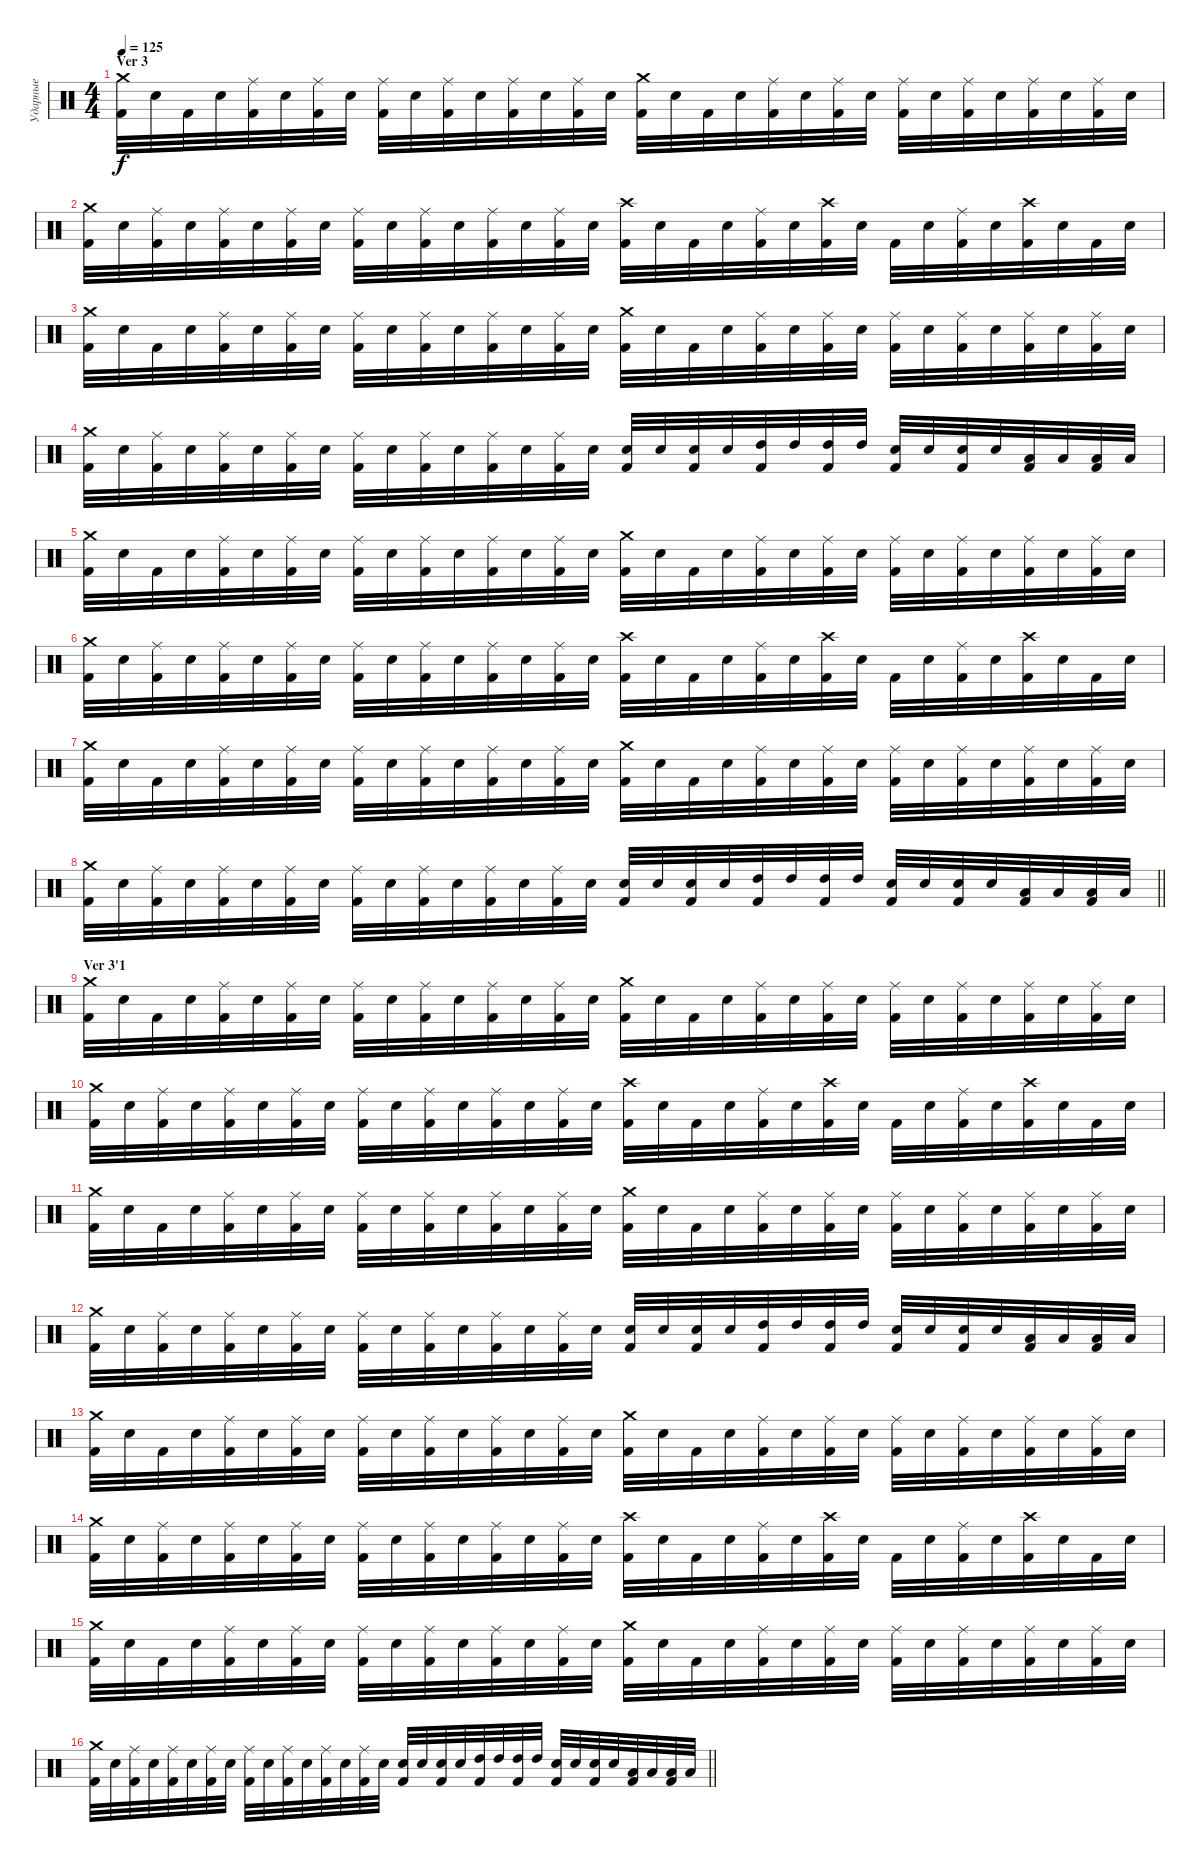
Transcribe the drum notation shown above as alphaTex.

\track ("Ударные" "Ударные") {instrument percussion}
\staff {score}
\articulation defaults
\ts (4 4)
\section ("" "Ver 3")
\tempo 125
\clef neutral
\ks c
("Crash medium (hit)" "Kick (hit) 2").32{dy f} "Electric Snare (hit)".32 "Kick (hit) 2".32 "Electric Snare (hit)".32 ("Ride (middle)" "Kick (hit) 2").32 "Electric Snare (hit)".32 ("Ride (middle)" "Kick (hit) 2").32 "Electric Snare (hit)".32 ("Ride (middle)" "Kick (hit) 2").32 "Electric Snare (hit)".32 ("Ride (middle)" "Kick (hit) 2").32 "Electric Snare (hit)".32 ("Ride (middle)" "Kick (hit) 2").32 "Electric Snare (hit)".32 ("Ride (middle)" "Kick (hit) 2").32 "Electric Snare (hit)".32 ("Crash medium (hit)" "Kick (hit) 2").32 "Electric Snare (hit)".32 "Kick (hit) 2".32 "Electric Snare (hit)".32 ("Ride (middle)" "Kick (hit) 2").32 "Electric Snare (hit)".32 ("Ride (middle)" "Kick (hit) 2").32 "Electric Snare (hit)".32 ("Ride (middle)" "Kick (hit) 2").32 "Electric Snare (hit)".32 ("Ride (middle)" "Kick (hit) 2").32 "Electric Snare (hit)".32 ("Ride (middle)" "Kick (hit) 2").32 "Electric Snare (hit)".32 ("Ride (middle)" "Kick (hit) 2").32 "Electric Snare (hit)".32 |
("Crash medium (hit)" "Kick (hit) 2").32 "Electric Snare (hit)".32 ("Ride (middle)" "Kick (hit) 2").32 "Electric Snare (hit)".32 ("Ride (middle)" "Kick (hit) 2").32 "Electric Snare (hit)".32 ("Ride (middle)" "Kick (hit) 2").32 "Electric Snare (hit)".32 ("Ride (middle)" "Kick (hit) 2").32 "Electric Snare (hit)".32 ("Ride (middle)" "Kick (hit) 2").32 "Electric Snare (hit)".32 ("Ride (middle)" "Kick (hit) 2").32 "Electric Snare (hit)".32 ("Ride (middle)" "Kick (hit) 2").32 "Electric Snare (hit)".32 ("Crash high (hit)" "Kick (hit) 2").32 "Electric Snare (hit)".32 "Kick (hit) 2".32 "Electric Snare (hit)".32 ("Ride (middle)" "Kick (hit) 2").32 "Electric Snare (hit)".32 ("Crash high (hit)" "Kick (hit) 2").32 "Electric Snare (hit)".32 "Kick (hit) 2".32 "Electric Snare (hit)".32 ("Ride (middle)" "Kick (hit) 2").32 "Electric Snare (hit)".32 ("Crash high (hit)" "Kick (hit) 2").32 "Electric Snare (hit)".32 "Kick (hit) 2".32 "Electric Snare (hit)".32 |
("Crash medium (hit)" "Kick (hit) 2").32 "Electric Snare (hit)".32 "Kick (hit) 2".32 "Electric Snare (hit)".32 ("Ride (middle)" "Kick (hit) 2").32 "Electric Snare (hit)".32 ("Ride (middle)" "Kick (hit) 2").32 "Electric Snare (hit)".32 ("Ride (middle)" "Kick (hit) 2").32 "Electric Snare (hit)".32 ("Ride (middle)" "Kick (hit) 2").32 "Electric Snare (hit)".32 ("Ride (middle)" "Kick (hit) 2").32 "Electric Snare (hit)".32 ("Ride (middle)" "Kick (hit) 2").32 "Electric Snare (hit)".32 ("Crash medium (hit)" "Kick (hit) 2").32 "Electric Snare (hit)".32 "Kick (hit) 2".32 "Electric Snare (hit)".32 ("Ride (middle)" "Kick (hit) 2").32 "Electric Snare (hit)".32 ("Ride (middle)" "Kick (hit) 2").32 "Electric Snare (hit)".32 ("Ride (middle)" "Kick (hit) 2").32 "Electric Snare (hit)".32 ("Ride (middle)" "Kick (hit) 2").32 "Electric Snare (hit)".32 ("Ride (middle)" "Kick (hit) 2").32 "Electric Snare (hit)".32 ("Ride (middle)" "Kick (hit) 2").32 "Electric Snare (hit)".32 |
("Crash medium (hit)" "Kick (hit) 2").32 "Electric Snare (hit)".32 ("Ride (middle)" "Kick (hit) 2").32 "Electric Snare (hit)".32 ("Ride (middle)" "Kick (hit) 2").32 "Electric Snare (hit)".32 ("Ride (middle)" "Kick (hit) 2").32 "Electric Snare (hit)".32 ("Ride (middle)" "Kick (hit) 2").32 "Electric Snare (hit)".32 ("Ride (middle)" "Kick (hit) 2").32 "Electric Snare (hit)".32 ("Ride (middle)" "Kick (hit) 2").32 "Electric Snare (hit)".32 ("Ride (middle)" "Kick (hit) 2").32 "Electric Snare (hit)".32 ("Electric Snare (hit)" "Kick (hit) 2").32 "Electric Snare (hit)".32 ("Electric Snare (hit)" "Kick (hit) 2").32 "Electric Snare (hit)".32 ("High Tom (hit)" "Kick (hit) 2").32 "High Tom (hit)".32 ("High Tom (hit)" "Kick (hit) 2").32 "High Tom (hit)".32 ("Electric Snare (hit)" "Kick (hit) 2").32 "Electric Snare (hit)".32 ("Electric Snare (hit)" "Kick (hit) 2").32 "Electric Snare (hit)".32 ("Low Tom (hit)" "Kick (hit) 2").32 "Low Tom (hit)".32 ("Low Tom (hit)" "Kick (hit) 2").32 "Low Tom (hit)".32 |
("Crash medium (hit)" "Kick (hit) 2").32 "Electric Snare (hit)".32 "Kick (hit) 2".32 "Electric Snare (hit)".32 ("Ride (middle)" "Kick (hit) 2").32 "Electric Snare (hit)".32 ("Ride (middle)" "Kick (hit) 2").32 "Electric Snare (hit)".32 ("Ride (middle)" "Kick (hit) 2").32 "Electric Snare (hit)".32 ("Ride (middle)" "Kick (hit) 2").32 "Electric Snare (hit)".32 ("Ride (middle)" "Kick (hit) 2").32 "Electric Snare (hit)".32 ("Ride (middle)" "Kick (hit) 2").32 "Electric Snare (hit)".32 ("Crash medium (hit)" "Kick (hit) 2").32 "Electric Snare (hit)".32 "Kick (hit) 2".32 "Electric Snare (hit)".32 ("Ride (middle)" "Kick (hit) 2").32 "Electric Snare (hit)".32 ("Ride (middle)" "Kick (hit) 2").32 "Electric Snare (hit)".32 ("Ride (middle)" "Kick (hit) 2").32 "Electric Snare (hit)".32 ("Ride (middle)" "Kick (hit) 2").32 "Electric Snare (hit)".32 ("Ride (middle)" "Kick (hit) 2").32 "Electric Snare (hit)".32 ("Ride (middle)" "Kick (hit) 2").32 "Electric Snare (hit)".32 |
("Crash medium (hit)" "Kick (hit) 2").32 "Electric Snare (hit)".32 ("Ride (middle)" "Kick (hit) 2").32 "Electric Snare (hit)".32 ("Ride (middle)" "Kick (hit) 2").32 "Electric Snare (hit)".32 ("Ride (middle)" "Kick (hit) 2").32 "Electric Snare (hit)".32 ("Ride (middle)" "Kick (hit) 2").32 "Electric Snare (hit)".32 ("Ride (middle)" "Kick (hit) 2").32 "Electric Snare (hit)".32 ("Ride (middle)" "Kick (hit) 2").32 "Electric Snare (hit)".32 ("Ride (middle)" "Kick (hit) 2").32 "Electric Snare (hit)".32 ("Crash high (hit)" "Kick (hit) 2").32 "Electric Snare (hit)".32 "Kick (hit) 2".32 "Electric Snare (hit)".32 ("Ride (middle)" "Kick (hit) 2").32 "Electric Snare (hit)".32 ("Crash high (hit)" "Kick (hit) 2").32 "Electric Snare (hit)".32 "Kick (hit) 2".32 "Electric Snare (hit)".32 ("Ride (middle)" "Kick (hit) 2").32 "Electric Snare (hit)".32 ("Crash high (hit)" "Kick (hit) 2").32 "Electric Snare (hit)".32 "Kick (hit) 2".32 "Electric Snare (hit)".32 |
("Crash medium (hit)" "Kick (hit) 2").32 "Electric Snare (hit)".32 "Kick (hit) 2".32 "Electric Snare (hit)".32 ("Ride (middle)" "Kick (hit) 2").32 "Electric Snare (hit)".32 ("Ride (middle)" "Kick (hit) 2").32 "Electric Snare (hit)".32 ("Ride (middle)" "Kick (hit) 2").32 "Electric Snare (hit)".32 ("Ride (middle)" "Kick (hit) 2").32 "Electric Snare (hit)".32 ("Ride (middle)" "Kick (hit) 2").32 "Electric Snare (hit)".32 ("Ride (middle)" "Kick (hit) 2").32 "Electric Snare (hit)".32 ("Crash medium (hit)" "Kick (hit) 2").32 "Electric Snare (hit)".32 "Kick (hit) 2".32 "Electric Snare (hit)".32 ("Ride (middle)" "Kick (hit) 2").32 "Electric Snare (hit)".32 ("Ride (middle)" "Kick (hit) 2").32 "Electric Snare (hit)".32 ("Ride (middle)" "Kick (hit) 2").32 "Electric Snare (hit)".32 ("Ride (middle)" "Kick (hit) 2").32 "Electric Snare (hit)".32 ("Ride (middle)" "Kick (hit) 2").32 "Electric Snare (hit)".32 ("Ride (middle)" "Kick (hit) 2").32 "Electric Snare (hit)".32 |
\barLineRight lightlight
("Crash medium (hit)" "Kick (hit) 2").32 "Electric Snare (hit)".32 ("Ride (middle)" "Kick (hit) 2").32 "Electric Snare (hit)".32 ("Ride (middle)" "Kick (hit) 2").32 "Electric Snare (hit)".32 ("Ride (middle)" "Kick (hit) 2").32 "Electric Snare (hit)".32 ("Ride (middle)" "Kick (hit) 2").32 "Electric Snare (hit)".32 ("Ride (middle)" "Kick (hit) 2").32 "Electric Snare (hit)".32 ("Ride (middle)" "Kick (hit) 2").32 "Electric Snare (hit)".32 ("Ride (middle)" "Kick (hit) 2").32 "Electric Snare (hit)".32 ("Electric Snare (hit)" "Kick (hit) 2").32 "Electric Snare (hit)".32 ("Electric Snare (hit)" "Kick (hit) 2").32 "Electric Snare (hit)".32 ("High Tom (hit)" "Kick (hit) 2").32 "High Tom (hit)".32 ("High Tom (hit)" "Kick (hit) 2").32 "High Tom (hit)".32 ("Electric Snare (hit)" "Kick (hit) 2").32 "Electric Snare (hit)".32 ("Electric Snare (hit)" "Kick (hit) 2").32 "Electric Snare (hit)".32 ("Low Tom (hit)" "Kick (hit) 2").32 "Low Tom (hit)".32 ("Low Tom (hit)" "Kick (hit) 2").32 "Low Tom (hit)".32 |
\section ("" "Ver 3'1")
("Crash medium (hit)" "Kick (hit) 2").32 "Electric Snare (hit)".32 "Kick (hit) 2".32 "Electric Snare (hit)".32 ("Ride (middle)" "Kick (hit) 2").32 "Electric Snare (hit)".32 ("Ride (middle)" "Kick (hit) 2").32 "Electric Snare (hit)".32 ("Ride (middle)" "Kick (hit) 2").32 "Electric Snare (hit)".32 ("Ride (middle)" "Kick (hit) 2").32 "Electric Snare (hit)".32 ("Ride (middle)" "Kick (hit) 2").32 "Electric Snare (hit)".32 ("Ride (middle)" "Kick (hit) 2").32 "Electric Snare (hit)".32 ("Crash medium (hit)" "Kick (hit) 2").32 "Electric Snare (hit)".32 "Kick (hit) 2".32 "Electric Snare (hit)".32 ("Ride (middle)" "Kick (hit) 2").32 "Electric Snare (hit)".32 ("Ride (middle)" "Kick (hit) 2").32 "Electric Snare (hit)".32 ("Ride (middle)" "Kick (hit) 2").32 "Electric Snare (hit)".32 ("Ride (middle)" "Kick (hit) 2").32 "Electric Snare (hit)".32 ("Ride (middle)" "Kick (hit) 2").32 "Electric Snare (hit)".32 ("Ride (middle)" "Kick (hit) 2").32 "Electric Snare (hit)".32 |
("Crash medium (hit)" "Kick (hit) 2").32 "Electric Snare (hit)".32 ("Ride (middle)" "Kick (hit) 2").32 "Electric Snare (hit)".32 ("Ride (middle)" "Kick (hit) 2").32 "Electric Snare (hit)".32 ("Ride (middle)" "Kick (hit) 2").32 "Electric Snare (hit)".32 ("Ride (middle)" "Kick (hit) 2").32 "Electric Snare (hit)".32 ("Ride (middle)" "Kick (hit) 2").32 "Electric Snare (hit)".32 ("Ride (middle)" "Kick (hit) 2").32 "Electric Snare (hit)".32 ("Ride (middle)" "Kick (hit) 2").32 "Electric Snare (hit)".32 ("Crash high (hit)" "Kick (hit) 2").32 "Electric Snare (hit)".32 "Kick (hit) 2".32 "Electric Snare (hit)".32 ("Ride (middle)" "Kick (hit) 2").32 "Electric Snare (hit)".32 ("Crash high (hit)" "Kick (hit) 2").32 "Electric Snare (hit)".32 "Kick (hit) 2".32 "Electric Snare (hit)".32 ("Ride (middle)" "Kick (hit) 2").32 "Electric Snare (hit)".32 ("Crash high (hit)" "Kick (hit) 2").32 "Electric Snare (hit)".32 "Kick (hit) 2".32 "Electric Snare (hit)".32 |
("Crash medium (hit)" "Kick (hit) 2").32 "Electric Snare (hit)".32 "Kick (hit) 2".32 "Electric Snare (hit)".32 ("Ride (middle)" "Kick (hit) 2").32 "Electric Snare (hit)".32 ("Ride (middle)" "Kick (hit) 2").32 "Electric Snare (hit)".32 ("Ride (middle)" "Kick (hit) 2").32 "Electric Snare (hit)".32 ("Ride (middle)" "Kick (hit) 2").32 "Electric Snare (hit)".32 ("Ride (middle)" "Kick (hit) 2").32 "Electric Snare (hit)".32 ("Ride (middle)" "Kick (hit) 2").32 "Electric Snare (hit)".32 ("Crash medium (hit)" "Kick (hit) 2").32 "Electric Snare (hit)".32 "Kick (hit) 2".32 "Electric Snare (hit)".32 ("Ride (middle)" "Kick (hit) 2").32 "Electric Snare (hit)".32 ("Ride (middle)" "Kick (hit) 2").32 "Electric Snare (hit)".32 ("Ride (middle)" "Kick (hit) 2").32 "Electric Snare (hit)".32 ("Ride (middle)" "Kick (hit) 2").32 "Electric Snare (hit)".32 ("Ride (middle)" "Kick (hit) 2").32 "Electric Snare (hit)".32 ("Ride (middle)" "Kick (hit) 2").32 "Electric Snare (hit)".32 |
("Crash medium (hit)" "Kick (hit) 2").32 "Electric Snare (hit)".32 ("Ride (middle)" "Kick (hit) 2").32 "Electric Snare (hit)".32 ("Ride (middle)" "Kick (hit) 2").32 "Electric Snare (hit)".32 ("Ride (middle)" "Kick (hit) 2").32 "Electric Snare (hit)".32 ("Ride (middle)" "Kick (hit) 2").32 "Electric Snare (hit)".32 ("Ride (middle)" "Kick (hit) 2").32 "Electric Snare (hit)".32 ("Ride (middle)" "Kick (hit) 2").32 "Electric Snare (hit)".32 ("Ride (middle)" "Kick (hit) 2").32 "Electric Snare (hit)".32 ("Electric Snare (hit)" "Kick (hit) 2").32 "Electric Snare (hit)".32 ("Electric Snare (hit)" "Kick (hit) 2").32 "Electric Snare (hit)".32 ("High Tom (hit)" "Kick (hit) 2").32 "High Tom (hit)".32 ("High Tom (hit)" "Kick (hit) 2").32 "High Tom (hit)".32 ("Electric Snare (hit)" "Kick (hit) 2").32 "Electric Snare (hit)".32 ("Electric Snare (hit)" "Kick (hit) 2").32 "Electric Snare (hit)".32 ("Low Tom (hit)" "Kick (hit) 2").32 "Low Tom (hit)".32 ("Low Tom (hit)" "Kick (hit) 2").32 "Low Tom (hit)".32 |
("Crash medium (hit)" "Kick (hit) 2").32 "Electric Snare (hit)".32 "Kick (hit) 2".32 "Electric Snare (hit)".32 ("Ride (middle)" "Kick (hit) 2").32 "Electric Snare (hit)".32 ("Ride (middle)" "Kick (hit) 2").32 "Electric Snare (hit)".32 ("Ride (middle)" "Kick (hit) 2").32 "Electric Snare (hit)".32 ("Ride (middle)" "Kick (hit) 2").32 "Electric Snare (hit)".32 ("Ride (middle)" "Kick (hit) 2").32 "Electric Snare (hit)".32 ("Ride (middle)" "Kick (hit) 2").32 "Electric Snare (hit)".32 ("Crash medium (hit)" "Kick (hit) 2").32 "Electric Snare (hit)".32 "Kick (hit) 2".32 "Electric Snare (hit)".32 ("Ride (middle)" "Kick (hit) 2").32 "Electric Snare (hit)".32 ("Ride (middle)" "Kick (hit) 2").32 "Electric Snare (hit)".32 ("Ride (middle)" "Kick (hit) 2").32 "Electric Snare (hit)".32 ("Ride (middle)" "Kick (hit) 2").32 "Electric Snare (hit)".32 ("Ride (middle)" "Kick (hit) 2").32 "Electric Snare (hit)".32 ("Ride (middle)" "Kick (hit) 2").32 "Electric Snare (hit)".32 |
("Crash medium (hit)" "Kick (hit) 2").32 "Electric Snare (hit)".32 ("Ride (middle)" "Kick (hit) 2").32 "Electric Snare (hit)".32 ("Ride (middle)" "Kick (hit) 2").32 "Electric Snare (hit)".32 ("Ride (middle)" "Kick (hit) 2").32 "Electric Snare (hit)".32 ("Ride (middle)" "Kick (hit) 2").32 "Electric Snare (hit)".32 ("Ride (middle)" "Kick (hit) 2").32 "Electric Snare (hit)".32 ("Ride (middle)" "Kick (hit) 2").32 "Electric Snare (hit)".32 ("Ride (middle)" "Kick (hit) 2").32 "Electric Snare (hit)".32 ("Crash high (hit)" "Kick (hit) 2").32 "Electric Snare (hit)".32 "Kick (hit) 2".32 "Electric Snare (hit)".32 ("Ride (middle)" "Kick (hit) 2").32 "Electric Snare (hit)".32 ("Crash high (hit)" "Kick (hit) 2").32 "Electric Snare (hit)".32 "Kick (hit) 2".32 "Electric Snare (hit)".32 ("Ride (middle)" "Kick (hit) 2").32 "Electric Snare (hit)".32 ("Crash high (hit)" "Kick (hit) 2").32 "Electric Snare (hit)".32 "Kick (hit) 2".32 "Electric Snare (hit)".32 |
("Crash medium (hit)" "Kick (hit) 2").32 "Electric Snare (hit)".32 "Kick (hit) 2".32 "Electric Snare (hit)".32 ("Ride (middle)" "Kick (hit) 2").32 "Electric Snare (hit)".32 ("Ride (middle)" "Kick (hit) 2").32 "Electric Snare (hit)".32 ("Ride (middle)" "Kick (hit) 2").32 "Electric Snare (hit)".32 ("Ride (middle)" "Kick (hit) 2").32 "Electric Snare (hit)".32 ("Ride (middle)" "Kick (hit) 2").32 "Electric Snare (hit)".32 ("Ride (middle)" "Kick (hit) 2").32 "Electric Snare (hit)".32 ("Crash medium (hit)" "Kick (hit) 2").32 "Electric Snare (hit)".32 "Kick (hit) 2".32 "Electric Snare (hit)".32 ("Ride (middle)" "Kick (hit) 2").32 "Electric Snare (hit)".32 ("Ride (middle)" "Kick (hit) 2").32 "Electric Snare (hit)".32 ("Ride (middle)" "Kick (hit) 2").32 "Electric Snare (hit)".32 ("Ride (middle)" "Kick (hit) 2").32 "Electric Snare (hit)".32 ("Ride (middle)" "Kick (hit) 2").32 "Electric Snare (hit)".32 ("Ride (middle)" "Kick (hit) 2").32 "Electric Snare (hit)".32 |
\barLineRight lightlight
("Crash medium (hit)" "Kick (hit) 2").32 "Electric Snare (hit)".32 ("Ride (middle)" "Kick (hit) 2").32 "Electric Snare (hit)".32 ("Ride (middle)" "Kick (hit) 2").32 "Electric Snare (hit)".32 ("Ride (middle)" "Kick (hit) 2").32 "Electric Snare (hit)".32 ("Ride (middle)" "Kick (hit) 2").32 "Electric Snare (hit)".32 ("Ride (middle)" "Kick (hit) 2").32 "Electric Snare (hit)".32 ("Ride (middle)" "Kick (hit) 2").32 "Electric Snare (hit)".32 ("Ride (middle)" "Kick (hit) 2").32 "Electric Snare (hit)".32 ("Electric Snare (hit)" "Kick (hit) 2").32 "Electric Snare (hit)".32 ("Electric Snare (hit)" "Kick (hit) 2").32 "Electric Snare (hit)".32 ("High Tom (hit)" "Kick (hit) 2").32 "High Tom (hit)".32 ("High Tom (hit)" "Kick (hit) 2").32 "High Tom (hit)".32 ("Electric Snare (hit)" "Kick (hit) 2").32 "Electric Snare (hit)".32 ("Electric Snare (hit)" "Kick (hit) 2").32 "Electric Snare (hit)".32 ("Low Tom (hit)" "Kick (hit) 2").32 "Low Tom (hit)".32 ("Low Tom (hit)" "Kick (hit) 2").32 "Low Tom (hit)".32
